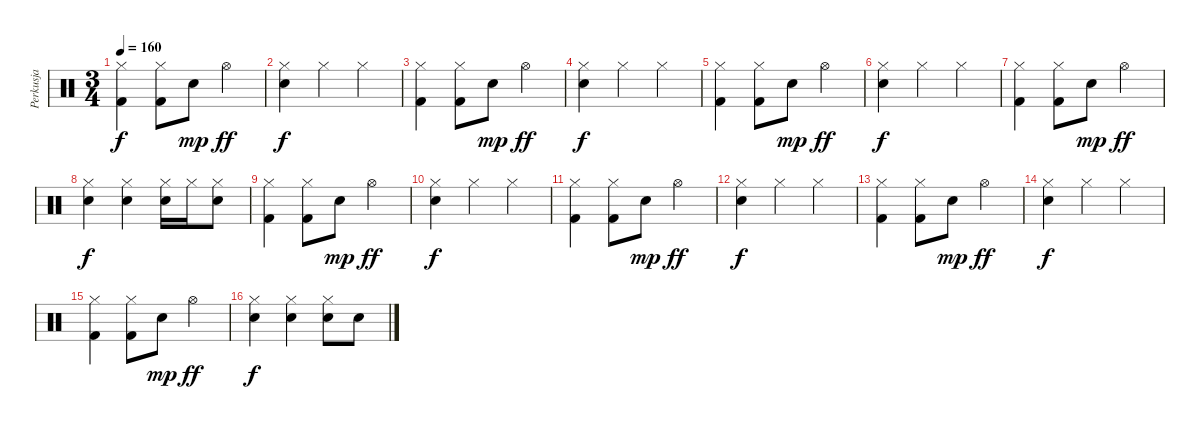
\track ("Perkusja" "Perkusja") {instrument percussion}
\staff {score}
\articulation defaults
\ts (3 4)
\tempo 160
\clef neutral
\ks c
("Hi-Hat (closed)" "Kick (hit) 2").4{dy f} ("Hi-Hat (closed)" "Kick (hit) 2").8 "Snare (hit) 2".8{dy mp} "Hi-Hat (open)".4{dy ff} |
("Hi-Hat (closed)" "Snare (hit) 2").4{dy f} "Hi-Hat (closed)".4 "Hi-Hat (closed)".4 |
("Hi-Hat (closed)" "Kick (hit) 2").4 ("Hi-Hat (closed)" "Kick (hit) 2").8 "Snare (hit) 2".8{dy mp} "Hi-Hat (open)".4{dy ff} |
("Hi-Hat (closed)" "Snare (hit) 2").4{dy f} "Hi-Hat (closed)".4 "Hi-Hat (closed)".4 |
("Hi-Hat (closed)" "Kick (hit) 2").4 ("Hi-Hat (closed)" "Kick (hit) 2").8 "Snare (hit) 2".8{dy mp} "Hi-Hat (open)".4{dy ff} |
("Hi-Hat (closed)" "Snare (hit) 2").4{dy f} "Hi-Hat (closed)".4 "Hi-Hat (closed)".4 |
("Hi-Hat (closed)" "Kick (hit) 2").4 ("Hi-Hat (closed)" "Kick (hit) 2").8 "Snare (hit) 2".8{dy mp} "Hi-Hat (open)".4{dy ff} |
("Hi-Hat (closed)" "Snare (hit) 2").4{dy f} ("Hi-Hat (closed)" "Snare (hit) 2").4 ("Hi-Hat (closed)" "Snare (hit) 2").16 "Hi-Hat (closed)".16 ("Hi-Hat (closed)" "Snare (hit) 2").8 |
("Hi-Hat (closed)" "Kick (hit) 2").4 ("Hi-Hat (closed)" "Kick (hit) 2").8 "Snare (hit) 2".8{dy mp} "Hi-Hat (open)".4{dy ff} |
("Hi-Hat (closed)" "Snare (hit) 2").4{dy f} "Hi-Hat (closed)".4 "Hi-Hat (closed)".4 |
("Hi-Hat (closed)" "Kick (hit) 2").4 ("Hi-Hat (closed)" "Kick (hit) 2").8 "Snare (hit) 2".8{dy mp} "Hi-Hat (open)".4{dy ff} |
("Hi-Hat (closed)" "Snare (hit) 2").4{dy f} "Hi-Hat (closed)".4 "Hi-Hat (closed)".4 |
("Hi-Hat (closed)" "Kick (hit) 2").4 ("Hi-Hat (closed)" "Kick (hit) 2").8 "Snare (hit) 2".8{dy mp} "Hi-Hat (open)".4{dy ff} |
("Hi-Hat (closed)" "Snare (hit) 2").4{dy f} "Hi-Hat (closed)".4 "Hi-Hat (closed)".4 |
("Hi-Hat (closed)" "Kick (hit) 2").4 ("Hi-Hat (closed)" "Kick (hit) 2").8 "Snare (hit) 2".8{dy mp} "Hi-Hat (open)".4{dy ff} |
("Hi-Hat (closed)" "Snare (hit) 2").4{dy f} ("Hi-Hat (closed)" "Snare (hit) 2").4 ("Hi-Hat (closed)" "Snare (hit) 2").8 "Snare (hit) 2".8
